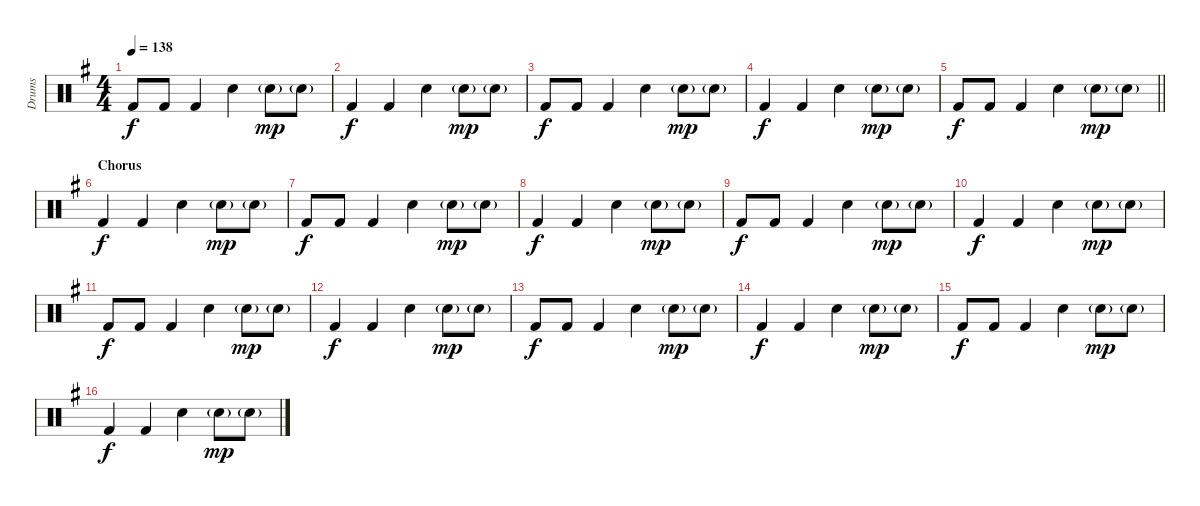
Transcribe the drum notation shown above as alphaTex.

\track ("Drums" "Drums") {instrument percussion}
\staff {score}
\articulation defaults
\ts (4 4)
\tempo 138
\clef neutral
\ks g "Kick (hit) 2".8{dy f} "Kick (hit) 2".8 "Kick (hit) 2".4 "Snare (hit) 2".4 "Snare (hit) 2"{g}.8{dy mp} "Snare (hit) 2"{g}.8
|
"Kick (hit) 2".4{dy f} "Kick (hit) 2".4 "Snare (hit) 2".4 "Snare (hit) 2"{g}.8{dy mp} "Snare (hit) 2"{g}.8 |
"Kick (hit) 2".8{dy f} "Kick (hit) 2".8 "Kick (hit) 2".4 "Snare (hit) 2".4 "Snare (hit) 2"{g}.8{dy mp} "Snare (hit) 2"{g}.8 |
"Kick (hit) 2".4{dy f} "Kick (hit) 2".4 "Snare (hit) 2".4 "Snare (hit) 2"{g}.8{dy mp} "Snare (hit) 2"{g}.8 |
\barLineRight lightlight "Kick (hit) 2".8{dy f} "Kick (hit) 2".8 "Kick (hit) 2".4 "Snare (hit) 2".4 "Snare (hit) 2"{g}.8{dy mp} "Snare (hit) 2"{g}.8
|
\section ("" "Chorus")
"Kick (hit) 2".4{dy f} "Kick (hit) 2".4 "Snare (hit) 2".4 "Snare (hit) 2"{g}.8{dy mp} "Snare (hit) 2"{g}.8 |
"Kick (hit) 2".8{dy f} "Kick (hit) 2".8 "Kick (hit) 2".4 "Snare (hit) 2".4 "Snare (hit) 2"{g}.8{dy mp} "Snare (hit) 2"{g}.8 |
"Kick (hit) 2".4{dy f} "Kick (hit) 2".4 "Snare (hit) 2".4 "Snare (hit) 2"{g}.8{dy mp} "Snare (hit) 2"{g}.8 |
"Kick (hit) 2".8{dy f} "Kick (hit) 2".8 "Kick (hit) 2".4 "Snare (hit) 2".4 "Snare (hit) 2"{g}.8{dy mp} "Snare (hit) 2"{g}.8 |
"Kick (hit) 2".4{dy f} "Kick (hit) 2".4 "Snare (hit) 2".4 "Snare (hit) 2"{g}.8{dy mp} "Snare (hit) 2"{g}.8 |
"Kick (hit) 2".8{dy f} "Kick (hit) 2".8 "Kick (hit) 2".4 "Snare (hit) 2".4 "Snare (hit) 2"{g}.8{dy mp} "Snare (hit) 2"{g}.8 |
"Kick (hit) 2".4{dy f} "Kick (hit) 2".4 "Snare (hit) 2".4 "Snare (hit) 2"{g}.8{dy mp} "Snare (hit) 2"{g}.8 |
"Kick (hit) 2".8{dy f} "Kick (hit) 2".8 "Kick (hit) 2".4 "Snare (hit) 2".4 "Snare (hit) 2"{g}.8{dy mp} "Snare (hit) 2"{g}.8 |
"Kick (hit) 2".4{dy f} "Kick (hit) 2".4 "Snare (hit) 2".4 "Snare (hit) 2"{g}.8{dy mp} "Snare (hit) 2"{g}.8 |
"Kick (hit) 2".8{dy f} "Kick (hit) 2".8 "Kick (hit) 2".4 "Snare (hit) 2".4 "Snare (hit) 2"{g}.8{dy mp} "Snare (hit) 2"{g}.8 |
"Kick (hit) 2".4{dy f} "Kick (hit) 2".4 "Snare (hit) 2".4 "Snare (hit) 2"{g}.8{dy mp} "Snare (hit) 2"{g}.8
